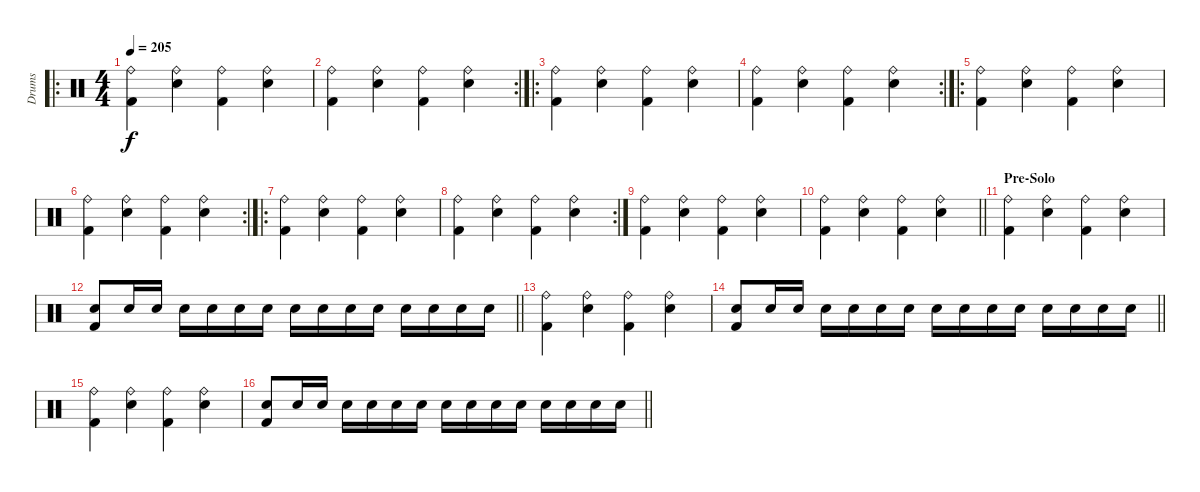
\track ("Drums" "Drums") {instrument percussion}
\staff {score}
\articulation defaults
\ro
\ts (4 4)
\tempo 205
\clef neutral
\ks c
("Ride (bell)" "Kick (hit) 2").4{dy f} ("Ride (bell)" "Snare (hit) 2").4 ("Ride (bell)" "Kick (hit) 2").4 ("Ride (bell)" "Snare (hit) 2").4 |
\rc 2
("Ride (bell)" "Kick (hit) 2").4 ("Ride (bell)" "Snare (hit) 2").4 ("Ride (bell)" "Kick (hit) 2").4 ("Ride (bell)" "Snare (hit) 2").4 |
\ro
("Ride (bell)" "Kick (hit) 2").4 ("Ride (bell)" "Snare (hit) 2").4 ("Ride (bell)" "Kick (hit) 2").4 ("Ride (bell)" "Snare (hit) 2").4 |
\rc 2
("Ride (bell)" "Kick (hit) 2").4 ("Ride (bell)" "Snare (hit) 2").4 ("Ride (bell)" "Kick (hit) 2").4 ("Ride (bell)" "Snare (hit) 2").4 |
\ro
("Ride (bell)" "Kick (hit) 2").4 ("Ride (bell)" "Snare (hit) 2").4 ("Ride (bell)" "Kick (hit) 2").4 ("Ride (bell)" "Snare (hit) 2").4 |
\rc 2
("Ride (bell)" "Kick (hit) 2").4 ("Ride (bell)" "Snare (hit) 2").4 ("Ride (bell)" "Kick (hit) 2").4 ("Ride (bell)" "Snare (hit) 2").4 |
\ro
("Ride (bell)" "Kick (hit) 2").4 ("Ride (bell)" "Snare (hit) 2").4 ("Ride (bell)" "Kick (hit) 2").4 ("Ride (bell)" "Snare (hit) 2").4 |
\rc 2
("Ride (bell)" "Kick (hit) 2").4 ("Ride (bell)" "Snare (hit) 2").4 ("Ride (bell)" "Kick (hit) 2").4 ("Ride (bell)" "Snare (hit) 2").4 |
("Ride (bell)" "Kick (hit) 2").4 ("Ride (bell)" "Snare (hit) 2").4 ("Ride (bell)" "Kick (hit) 2").4 ("Ride (bell)" "Snare (hit) 2").4 |
\barLineRight lightlight
("Ride (bell)" "Kick (hit) 2").4 ("Ride (bell)" "Snare (hit) 2").4 ("Ride (bell)" "Kick (hit) 2").4 ("Ride (bell)" "Snare (hit) 2").4 |
\section ("" "Pre-Solo")
("Ride (bell)" "Kick (hit) 2").4 ("Ride (bell)" "Snare (hit) 2").4 ("Ride (bell)" "Kick (hit) 2").4 ("Ride (bell)" "Snare (hit) 2").4 |
\barLineRight lightlight
("Snare (hit) 2" "Kick (hit) 2").8 "Snare (hit) 2".16 "Snare (hit) 2".16 "Snare (hit) 2".16 "Snare (hit) 2".16 "Snare (hit) 2".16 "Snare (hit) 2".16 "Snare (hit) 2".16 "Snare (hit) 2".16 "Snare (hit) 2".16 "Snare (hit) 2".16 "Snare (hit) 2".16 "Snare (hit) 2".16 "Snare (hit) 2".16 "Snare (hit) 2".16 |
("Ride (bell)" "Kick (hit) 2").4 ("Ride (bell)" "Snare (hit) 2").4 ("Ride (bell)" "Kick (hit) 2").4 ("Ride (bell)" "Snare (hit) 2").4 |
\barLineRight lightlight
("Snare (hit) 2" "Kick (hit) 2").8 "Snare (hit) 2".16 "Snare (hit) 2".16 "Snare (hit) 2".16 "Snare (hit) 2".16 "Snare (hit) 2".16 "Snare (hit) 2".16 "Snare (hit) 2".16 "Snare (hit) 2".16 "Snare (hit) 2".16 "Snare (hit) 2".16 "Snare (hit) 2".16 "Snare (hit) 2".16 "Snare (hit) 2".16 "Snare (hit) 2".16 |
("Ride (bell)" "Kick (hit) 2").4 ("Ride (bell)" "Snare (hit) 2").4 ("Ride (bell)" "Kick (hit) 2").4 ("Ride (bell)" "Snare (hit) 2").4 |
\barLineRight lightlight
("Snare (hit) 2" "Kick (hit) 2").8 "Snare (hit) 2".16 "Snare (hit) 2".16 "Snare (hit) 2".16 "Snare (hit) 2".16 "Snare (hit) 2".16 "Snare (hit) 2".16 "Snare (hit) 2".16 "Snare (hit) 2".16 "Snare (hit) 2".16 "Snare (hit) 2".16 "Snare (hit) 2".16 "Snare (hit) 2".16 "Snare (hit) 2".16 "Snare (hit) 2".16
